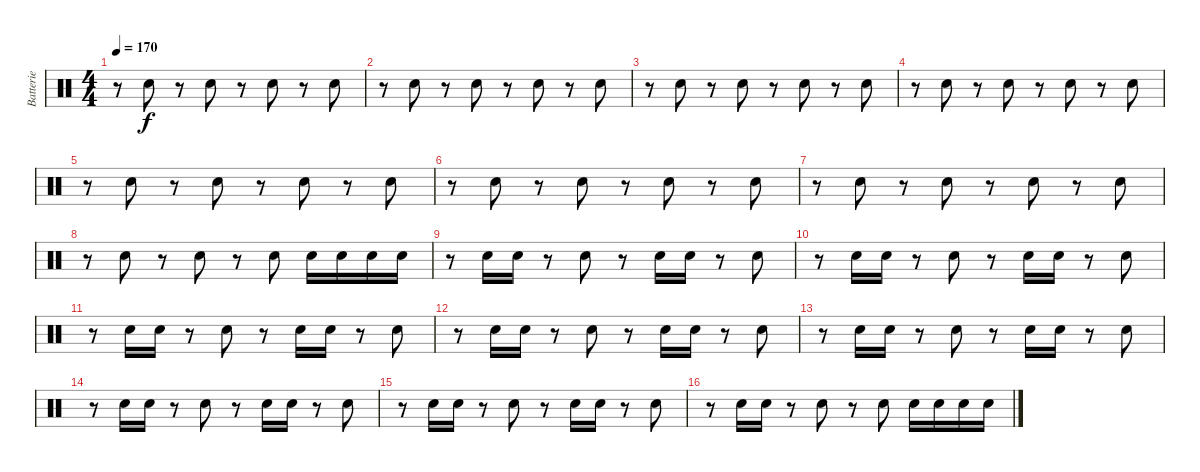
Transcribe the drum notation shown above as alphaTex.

\track ("Batterie" "Batterie") {instrument percussion}
\staff {score}
\articulation defaults
\ts (4 4)
\tempo 170
\clef neutral
\ks c
r.8{dy f} "Snare (hit) 2".8 r.8 "Snare (hit) 2".8 r.8 "Snare (hit) 2".8 r.8 "Snare (hit) 2".8 |
r.8 "Snare (hit) 2".8 r.8 "Snare (hit) 2".8 r.8 "Snare (hit) 2".8 r.8 "Snare (hit) 2".8 |
r.8 "Snare (hit) 2".8 r.8 "Snare (hit) 2".8 r.8 "Snare (hit) 2".8 r.8 "Snare (hit) 2".8 |
r.8 "Snare (hit) 2".8 r.8 "Snare (hit) 2".8 r.8 "Snare (hit) 2".8 r.8 "Snare (hit) 2".8 |
r.8 "Snare (hit) 2".8 r.8 "Snare (hit) 2".8 r.8 "Snare (hit) 2".8 r.8 "Snare (hit) 2".8 |
r.8 "Snare (hit) 2".8 r.8 "Snare (hit) 2".8 r.8 "Snare (hit) 2".8 r.8 "Snare (hit) 2".8 |
r.8 "Snare (hit) 2".8 r.8 "Snare (hit) 2".8 r.8 "Snare (hit) 2".8 r.8 "Snare (hit) 2".8 |
r.8 "Snare (hit) 2".8 r.8 "Snare (hit) 2".8 r.8 "Snare (hit) 2".8 "Snare (hit) 2".16 "Snare (hit) 2".16 "Snare (hit) 2".16 "Snare (hit) 2".16 |
r.8 "Snare (hit) 2".16 "Snare (hit) 2".16 r.8 "Snare (hit) 2".8 r.8 "Snare (hit) 2".16 "Snare (hit) 2".16 r.8 "Snare (hit) 2".8 |
r.8 "Snare (hit) 2".16 "Snare (hit) 2".16 r.8 "Snare (hit) 2".8 r.8 "Snare (hit) 2".16 "Snare (hit) 2".16 r.8 "Snare (hit) 2".8 |
r.8 "Snare (hit) 2".16 "Snare (hit) 2".16 r.8 "Snare (hit) 2".8 r.8 "Snare (hit) 2".16 "Snare (hit) 2".16 r.8 "Snare (hit) 2".8 |
r.8 "Snare (hit) 2".16 "Snare (hit) 2".16 r.8 "Snare (hit) 2".8 r.8 "Snare (hit) 2".16 "Snare (hit) 2".16 r.8 "Snare (hit) 2".8 |
r.8 "Snare (hit) 2".16 "Snare (hit) 2".16 r.8 "Snare (hit) 2".8 r.8 "Snare (hit) 2".16 "Snare (hit) 2".16 r.8 "Snare (hit) 2".8 |
r.8 "Snare (hit) 2".16 "Snare (hit) 2".16 r.8 "Snare (hit) 2".8 r.8 "Snare (hit) 2".16 "Snare (hit) 2".16 r.8 "Snare (hit) 2".8 |
r.8 "Snare (hit) 2".16 "Snare (hit) 2".16 r.8 "Snare (hit) 2".8 r.8 "Snare (hit) 2".16 "Snare (hit) 2".16 r.8 "Snare (hit) 2".8 |
r.8 "Snare (hit) 2".16 "Snare (hit) 2".16 r.8 "Snare (hit) 2".8 r.8 "Snare (hit) 2".8 "Snare (hit) 2".16 "Snare (hit) 2".16 "Snare (hit) 2".16 "Snare (hit) 2".16
